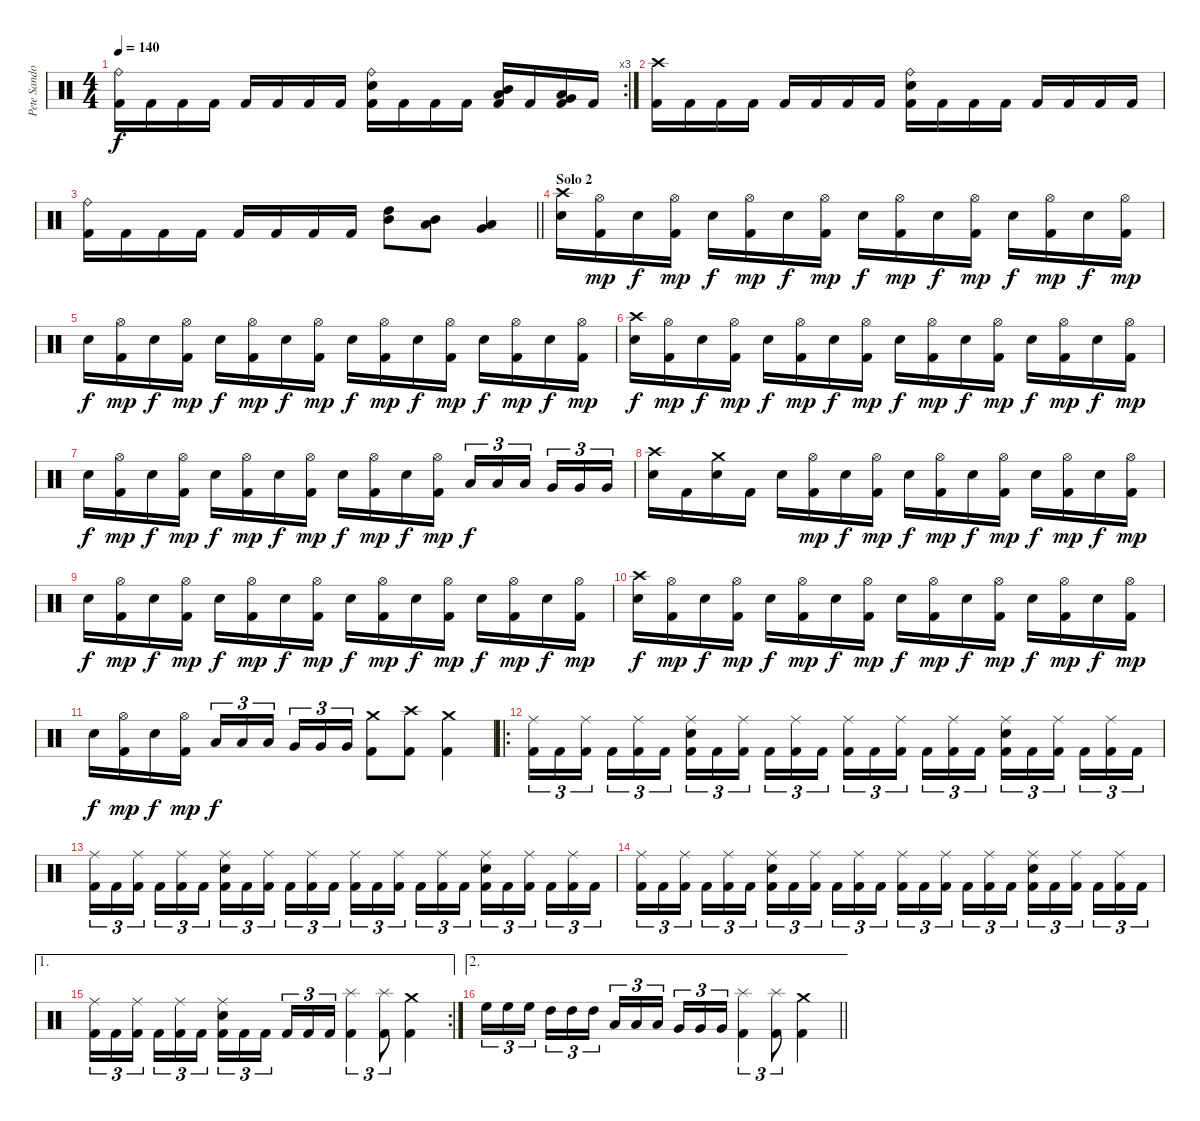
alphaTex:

\track ("Pete Sandoval" "Pete Sando") {instrument percussion}
\staff {score}
\articulation defaults
\rc 3
\ts (4 4)
\tempo 140
\clef neutral
\ks c
("Ride (bell)" "Kick (hit) 2").16{dy f} "Kick (hit) 2".16 "Kick (hit) 2".16 "Kick (hit) 2".16 "Kick (hit) 2".16 "Kick (hit) 2".16 "Kick (hit) 2".16 "Kick (hit) 2".16 ("Ride (bell)" "Electric Snare (hit)" "Kick (hit) 2").16 "Kick (hit) 2".16 "Kick (hit) 2".16 "Kick (hit) 2".16 ("Mid Tom (hit)" "Low Tom (hit)" "Kick (hit) 2").16 "Kick (hit) 2".16 ("Low Tom (hit)" "Very Low Tom (hit)" "Kick (hit) 2").16 "Kick (hit) 2".16 |
("Crash high (hit)" "Kick (hit) 2").16 "Kick (hit) 2".16 "Kick (hit) 2".16 "Kick (hit) 2".16 "Kick (hit) 2".16 "Kick (hit) 2".16 "Kick (hit) 2".16 "Kick (hit) 2".16 ("Ride (bell)" "Electric Snare (hit)" "Kick (hit) 2").16 "Kick (hit) 2".16 "Kick (hit) 2".16 "Kick (hit) 2".16 "Kick (hit) 2".16 "Kick (hit) 2".16 "Kick (hit) 2".16 "Kick (hit) 2".16 |
\barLineRight lightlight
("Ride (bell)" "Kick (hit) 2").16 "Kick (hit) 2".16 "Kick (hit) 2".16 "Kick (hit) 2".16 "Kick (hit) 2".16 "Kick (hit) 2".16 "Kick (hit) 2".16 "Kick (hit) 2".16 ("High Tom (hit)" "Mid Tom (hit)").8 ("Mid Tom (hit)" "Low Tom (hit)").8 ("Low Tom (hit)" "Very Low Tom (hit)").4 |
\section ("" "Solo 2")
("Crash high (hit)" "Electric Snare (hit)").16 ("Hi-Hat (open)" "Kick (hit) 2").16{dy mp} "Electric Snare (hit)".16{dy f} ("Hi-Hat (open)" "Kick (hit) 2").16{dy mp} "Electric Snare (hit)".16{dy f} ("Hi-Hat (open)" "Kick (hit) 2").16{dy mp} "Electric Snare (hit)".16{dy f} ("Hi-Hat (open)" "Kick (hit) 2").16{dy mp} "Electric Snare (hit)".16{dy f} ("Hi-Hat (open)" "Kick (hit) 2").16{dy mp} "Electric Snare (hit)".16{dy f} ("Hi-Hat (open)" "Kick (hit) 2").16{dy mp} "Electric Snare (hit)".16{dy f} ("Hi-Hat (open)" "Kick (hit) 2").16{dy mp} "Electric Snare (hit)".16{dy f} ("Hi-Hat (open)" "Kick (hit) 2").16{dy mp} |
"Electric Snare (hit)".16{dy f} ("Hi-Hat (open)" "Kick (hit) 2").16{dy mp} "Electric Snare (hit)".16{dy f} ("Hi-Hat (open)" "Kick (hit) 2").16{dy mp} "Electric Snare (hit)".16{dy f} ("Hi-Hat (open)" "Kick (hit) 2").16{dy mp} "Electric Snare (hit)".16{dy f} ("Hi-Hat (open)" "Kick (hit) 2").16{dy mp} "Electric Snare (hit)".16{dy f} ("Hi-Hat (open)" "Kick (hit) 2").16{dy mp} "Electric Snare (hit)".16{dy f} ("Hi-Hat (open)" "Kick (hit) 2").16{dy mp} "Electric Snare (hit)".16{dy f} ("Hi-Hat (open)" "Kick (hit) 2").16{dy mp} "Electric Snare (hit)".16{dy f} ("Hi-Hat (open)" "Kick (hit) 2").16{dy mp} |
("Crash high (hit)" "Electric Snare (hit)").16{dy f} ("Hi-Hat (open)" "Kick (hit) 2").16{dy mp} "Electric Snare (hit)".16{dy f} ("Hi-Hat (open)" "Kick (hit) 2").16{dy mp} "Electric Snare (hit)".16{dy f} ("Hi-Hat (open)" "Kick (hit) 2").16{dy mp} "Electric Snare (hit)".16{dy f} ("Hi-Hat (open)" "Kick (hit) 2").16{dy mp} "Electric Snare (hit)".16{dy f} ("Hi-Hat (open)" "Kick (hit) 2").16{dy mp} "Electric Snare (hit)".16{dy f} ("Hi-Hat (open)" "Kick (hit) 2").16{dy mp} "Electric Snare (hit)".16{dy f} ("Hi-Hat (open)" "Kick (hit) 2").16{dy mp} "Electric Snare (hit)".16{dy f} ("Hi-Hat (open)" "Kick (hit) 2").16{dy mp} |
"Electric Snare (hit)".16{dy f} ("Hi-Hat (open)" "Kick (hit) 2").16{dy mp} "Electric Snare (hit)".16{dy f} ("Hi-Hat (open)" "Kick (hit) 2").16{dy mp} "Electric Snare (hit)".16{dy f} ("Hi-Hat (open)" "Kick (hit) 2").16{dy mp} "Electric Snare (hit)".16{dy f} ("Hi-Hat (open)" "Kick (hit) 2").16{dy mp} "Electric Snare (hit)".16{dy f} ("Hi-Hat (open)" "Kick (hit) 2").16{dy mp} "Electric Snare (hit)".16{dy f} ("Hi-Hat (open)" "Kick (hit) 2").16{dy mp} "Low Tom (hit)".16{tu (3 2) dy f} "Low Tom (hit)".16{tu (3 2)} "Low Tom (hit)".16{tu (3 2) beam splitsecondary} "Very Low Tom (hit)".16{tu (3 2)} "Very Low Tom (hit)".16{tu (3 2)} "Very Low Tom (hit)".16{tu (3 2)} |
("Crash high (hit)" "Electric Snare (hit)").16 "Kick (hit) 2".16 ("Crash medium (hit)" "Electric Snare (hit)").16 "Kick (hit) 2".16 "Electric Snare (hit)".16 ("Hi-Hat (open)" "Kick (hit) 2").16{dy mp} "Electric Snare (hit)".16{dy f} ("Hi-Hat (open)" "Kick (hit) 2").16{dy mp} "Electric Snare (hit)".16{dy f} ("Hi-Hat (open)" "Kick (hit) 2").16{dy mp} "Electric Snare (hit)".16{dy f} ("Hi-Hat (open)" "Kick (hit) 2").16{dy mp} "Electric Snare (hit)".16{dy f} ("Hi-Hat (open)" "Kick (hit) 2").16{dy mp} "Electric Snare (hit)".16{dy f} ("Hi-Hat (open)" "Kick (hit) 2").16{dy mp} |
"Electric Snare (hit)".16{dy f} ("Hi-Hat (open)" "Kick (hit) 2").16{dy mp} "Electric Snare (hit)".16{dy f} ("Hi-Hat (open)" "Kick (hit) 2").16{dy mp} "Electric Snare (hit)".16{dy f} ("Hi-Hat (open)" "Kick (hit) 2").16{dy mp} "Electric Snare (hit)".16{dy f} ("Hi-Hat (open)" "Kick (hit) 2").16{dy mp} "Electric Snare (hit)".16{dy f} ("Hi-Hat (open)" "Kick (hit) 2").16{dy mp} "Electric Snare (hit)".16{dy f} ("Hi-Hat (open)" "Kick (hit) 2").16{dy mp} "Electric Snare (hit)".16{dy f} ("Hi-Hat (open)" "Kick (hit) 2").16{dy mp} "Electric Snare (hit)".16{dy f} ("Hi-Hat (open)" "Kick (hit) 2").16{dy mp} |
("Crash high (hit)" "Electric Snare (hit)").16{dy f} ("Hi-Hat (open)" "Kick (hit) 2").16{dy mp} "Electric Snare (hit)".16{dy f} ("Hi-Hat (open)" "Kick (hit) 2").16{dy mp} "Electric Snare (hit)".16{dy f} ("Hi-Hat (open)" "Kick (hit) 2").16{dy mp} "Electric Snare (hit)".16{dy f} ("Hi-Hat (open)" "Kick (hit) 2").16{dy mp} "Electric Snare (hit)".16{dy f} ("Hi-Hat (open)" "Kick (hit) 2").16{dy mp} "Electric Snare (hit)".16{dy f} ("Hi-Hat (open)" "Kick (hit) 2").16{dy mp} "Electric Snare (hit)".16{dy f} ("Hi-Hat (open)" "Kick (hit) 2").16{dy mp} "Electric Snare (hit)".16{dy f} ("Hi-Hat (open)" "Kick (hit) 2").16{dy mp} |
"Electric Snare (hit)".16{dy f} ("Hi-Hat (open)" "Kick (hit) 2").16{dy mp} "Electric Snare (hit)".16{dy f} ("Hi-Hat (open)" "Kick (hit) 2").16{dy mp} "Low Tom (hit)".16{tu (3 2) dy f} "Low Tom (hit)".16{tu (3 2)} "Low Tom (hit)".16{tu (3 2) beam splitsecondary} "Very Low Tom (hit)".16{tu (3 2)} "Very Low Tom (hit)".16{tu (3 2)} "Very Low Tom (hit)".16{tu (3 2)} ("Crash medium (hit)" "Kick (hit) 2").8 ("Crash high (hit)" "Kick (hit) 2").8 ("Crash medium (hit)" "Kick (hit) 2").4 |
\ro
("Ride (middle)" "Kick (hit) 2").16{tu (3 2)} "Kick (hit) 2".16{tu (3 2)} ("Ride (middle)" "Kick (hit) 2").16{tu (3 2) beam splitsecondary} "Kick (hit) 2".16{tu (3 2)} ("Ride (middle)" "Kick (hit) 2").16{tu (3 2)} "Kick (hit) 2".16{tu (3 2)} ("Ride (middle)" "Electric Snare (hit)" "Kick (hit) 2").16{tu (3 2)} "Kick (hit) 2".16{tu (3 2)} ("Ride (middle)" "Kick (hit) 2").16{tu (3 2) beam splitsecondary} "Kick (hit) 2".16{tu (3 2)} ("Ride (middle)" "Kick (hit) 2").16{tu (3 2)} "Kick (hit) 2".16{tu (3 2)} ("Ride (middle)" "Kick (hit) 2").16{tu (3 2)} "Kick (hit) 2".16{tu (3 2)} ("Ride (middle)" "Kick (hit) 2").16{tu (3 2) beam splitsecondary} "Kick (hit) 2".16{tu (3 2)} ("Ride (middle)" "Kick (hit) 2").16{tu (3 2)} "Kick (hit) 2".16{tu (3 2)} ("Ride (middle)" "Electric Snare (hit)" "Kick (hit) 2").16{tu (3 2)} "Kick (hit) 2".16{tu (3 2)} ("Ride (middle)" "Kick (hit) 2").16{tu (3 2) beam splitsecondary} "Kick (hit) 2".16{tu (3 2)} ("Ride (middle)" "Kick (hit) 2").16{tu (3 2)} "Kick (hit) 2".16{tu (3 2)} |
("Ride (middle)" "Kick (hit) 2").16{tu (3 2)} "Kick (hit) 2".16{tu (3 2)} ("Ride (middle)" "Kick (hit) 2").16{tu (3 2) beam splitsecondary} "Kick (hit) 2".16{tu (3 2)} ("Ride (middle)" "Kick (hit) 2").16{tu (3 2)} "Kick (hit) 2".16{tu (3 2)} ("Ride (middle)" "Electric Snare (hit)" "Kick (hit) 2").16{tu (3 2)} "Kick (hit) 2".16{tu (3 2)} ("Ride (middle)" "Kick (hit) 2").16{tu (3 2) beam splitsecondary} "Kick (hit) 2".16{tu (3 2)} ("Ride (middle)" "Kick (hit) 2").16{tu (3 2)} "Kick (hit) 2".16{tu (3 2)} ("Ride (middle)" "Kick (hit) 2").16{tu (3 2)} "Kick (hit) 2".16{tu (3 2)} ("Ride (middle)" "Kick (hit) 2").16{tu (3 2) beam splitsecondary} "Kick (hit) 2".16{tu (3 2)} ("Ride (middle)" "Kick (hit) 2").16{tu (3 2)} "Kick (hit) 2".16{tu (3 2)} ("Ride (middle)" "Electric Snare (hit)" "Kick (hit) 2").16{tu (3 2)} "Kick (hit) 2".16{tu (3 2)} ("Ride (middle)" "Kick (hit) 2").16{tu (3 2) beam splitsecondary} "Kick (hit) 2".16{tu (3 2)} ("Ride (middle)" "Kick (hit) 2").16{tu (3 2)} "Kick (hit) 2".16{tu (3 2)} |
("Ride (middle)" "Kick (hit) 2").16{tu (3 2)} "Kick (hit) 2".16{tu (3 2)} ("Ride (middle)" "Kick (hit) 2").16{tu (3 2) beam splitsecondary} "Kick (hit) 2".16{tu (3 2)} ("Ride (middle)" "Kick (hit) 2").16{tu (3 2)} "Kick (hit) 2".16{tu (3 2)} ("Ride (middle)" "Electric Snare (hit)" "Kick (hit) 2").16{tu (3 2)} "Kick (hit) 2".16{tu (3 2)} ("Ride (middle)" "Kick (hit) 2").16{tu (3 2) beam splitsecondary} "Kick (hit) 2".16{tu (3 2)} ("Ride (middle)" "Kick (hit) 2").16{tu (3 2)} "Kick (hit) 2".16{tu (3 2)} ("Ride (middle)" "Kick (hit) 2").16{tu (3 2)} "Kick (hit) 2".16{tu (3 2)} ("Ride (middle)" "Kick (hit) 2").16{tu (3 2) beam splitsecondary} "Kick (hit) 2".16{tu (3 2)} ("Ride (middle)" "Kick (hit) 2").16{tu (3 2)} "Kick (hit) 2".16{tu (3 2)} ("Ride (middle)" "Electric Snare (hit)" "Kick (hit) 2").16{tu (3 2)} "Kick (hit) 2".16{tu (3 2)} ("Ride (middle)" "Kick (hit) 2").16{tu (3 2) beam splitsecondary} "Kick (hit) 2".16{tu (3 2)} ("Ride (middle)" "Kick (hit) 2").16{tu (3 2)} "Kick (hit) 2".16{tu (3 2)} |
\ae 1
\rc 2
("Ride (middle)" "Kick (hit) 2").16{tu (3 2)} "Kick (hit) 2".16{tu (3 2)} ("Ride (middle)" "Kick (hit) 2").16{tu (3 2) beam splitsecondary} "Kick (hit) 2".16{tu (3 2)} ("Ride (middle)" "Kick (hit) 2").16{tu (3 2)} "Kick (hit) 2".16{tu (3 2)} ("Ride (middle)" "Electric Snare (hit)" "Kick (hit) 2").16{tu (3 2)} "Kick (hit) 2".16{tu (3 2)} "Kick (hit) 2".16{tu (3 2) beam splitsecondary} "Kick (hit) 2".16{tu (3 2)} "Kick (hit) 2".16{tu (3 2)} "Kick (hit) 2".16{tu (3 2)} ("Splash (hit)" "Kick (hit) 2").4{tu (3 2)} ("Splash (hit)" "Kick (hit) 2").8{tu (3 2)} ("Crash medium (hit)" "Kick (hit) 2").4 |
\ae 2
\barLineRight lightlight "High Floor Tom (hit)".16{tu (3 2)} "High Floor Tom (hit)".16{tu (3 2)} "High Floor Tom (hit)".16{tu (3 2) beam splitsecondary} "High Tom (hit)".16{tu (3 2)} "High Tom (hit)".16{tu (3 2)} "High Tom (hit)".16{tu (3 2)} "Low Tom (hit)".16{tu (3 2)} "Low Tom (hit)".16{tu (3 2)} "Low Tom (hit)".16{tu (3 2) beam splitsecondary} "Very Low Tom (hit)".16{tu (3 2)} "Very Low Tom (hit)".16{tu (3 2)} "Very Low Tom (hit)".16{tu (3 2)}
("Splash (hit)" "Kick (hit) 2").4{tu (3 2)} ("Splash (hit)" "Kick (hit) 2").8{tu (3 2)} ("Crash medium (hit)" "Kick (hit) 2").4
